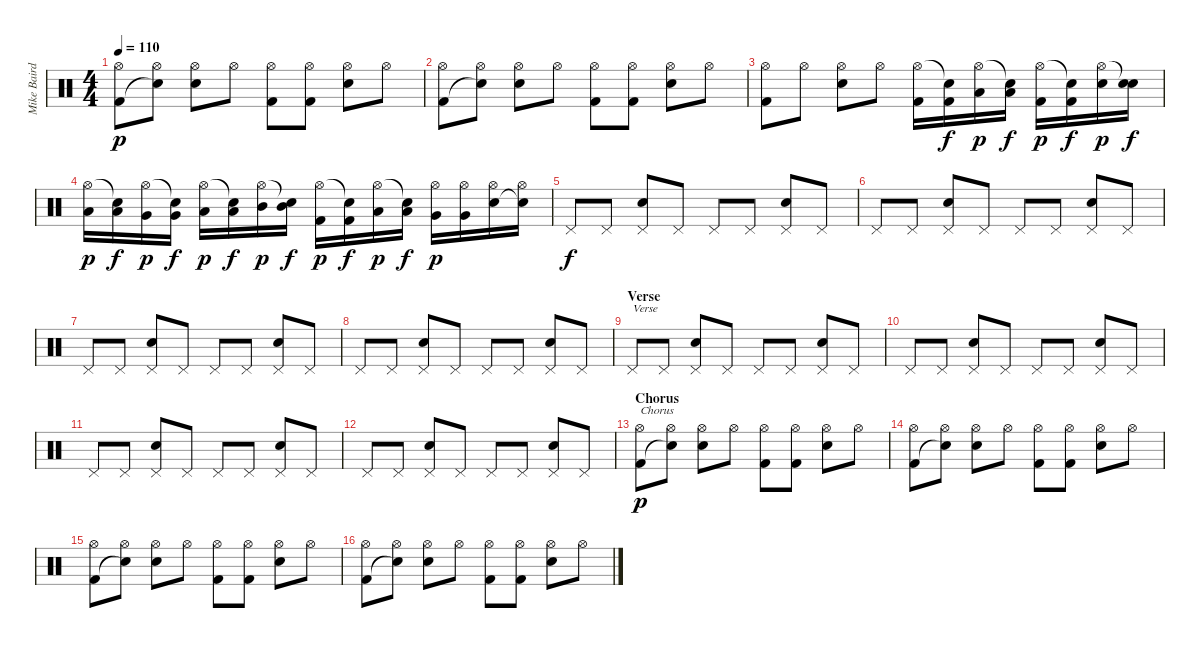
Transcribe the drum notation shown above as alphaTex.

\track ("Mike Baird [drums]" "Mike Baird") {instrument percussion}
\staff {score}
\articulation defaults
\ts (4 4)
\tempo 110
\clef neutral
\ks c
("Hi-Hat (open)" "Kick (hit) 2").8{dy p} ("Hi-Hat (open)" "Snare (hit)"{t}).8 ("Hi-Hat (open)" "Electric Snare (hit)").8 "Hi-Hat (open)".8 ("Hi-Hat (open)" "Kick (hit) 2").8 ("Hi-Hat (open)" "Kick (hit) 2").8 ("Hi-Hat (open)" "Electric Snare (hit)").8 "Hi-Hat (open)".8 |
("Hi-Hat (open)" "Kick (hit) 2").8 ("Hi-Hat (open)" "Snare (hit)"{t}).8 ("Hi-Hat (open)" "Electric Snare (hit)").8 "Hi-Hat (open)".8 ("Hi-Hat (open)" "Kick (hit) 2").8 ("Hi-Hat (open)" "Kick (hit) 2").8 ("Hi-Hat (open)" "Electric Snare (hit)").8 "Hi-Hat (open)".8 |
("Hi-Hat (open)" "Kick (hit) 2").8 "Hi-Hat (open)".8 ("Hi-Hat (open)" "Electric Snare (hit)").8 "Hi-Hat (open)".8 ("Hi-Hat (open)" "Kick (hit) 2").16 ("Snare (hit)"{t} "Kick (hit) 2").16{dy f} ("Hi-Hat (open)" "Low Tom (hit)").16{dy p} ("Snare (hit)"{t} "Low Tom (hit)").16{dy f} ("Hi-Hat (open)" "Kick (hit) 2").16{dy p} ("Snare (hit)"{t} "Kick (hit) 2").16{dy f} ("Hi-Hat (open)" "Electric Snare (hit)").16{dy p} ("Snare (hit)"{t} "Electric Snare (hit)").16{dy f} |
("Hi-Hat (open)" "Low Floor Tom (hit)").16{dy p} ("Snare (hit)"{t} "Low Floor Tom (hit)").16{dy f} ("Hi-Hat (open)" "Very Low Tom (hit)").16{dy p} ("Snare (hit)"{t} "Very Low Tom (hit)").16{dy f} ("Hi-Hat (open)" "Low Tom (hit)").16{dy p} ("Snare (hit)"{t} "Low Tom (hit)").16{dy f} ("Hi-Hat (open)" "Mid Tom (hit)").16{dy p} ("Snare (hit)"{t} "Mid Tom (hit)").16{dy f} ("Hi-Hat (open)" "Kick (hit) 2").16{dy p} ("Snare (hit)"{t} "Kick (hit) 2").16{dy f} ("Hi-Hat (open)" "Low Tom (hit)").16{dy p} ("Snare (hit)"{t} "Low Tom (hit)").16{dy f} ("Hi-Hat (open)" "Very Low Tom (hit)").16{dy p} ("Hi-Hat (open)" "Very Low Tom (hit)").16 ("Hi-Hat (open)" "Electric Snare (hit)").16 ("Hi-Hat (open)" "Electric Snare (hit)"{t}).16 |
"Pedal Hi-Hat (hit)".8{dy f} "Pedal Hi-Hat (hit)".8 ("Pedal Hi-Hat (hit)" "Electric Snare (hit)").8 "Pedal Hi-Hat (hit)".8 "Pedal Hi-Hat (hit)".8 "Pedal Hi-Hat (hit)".8 ("Pedal Hi-Hat (hit)" "Electric Snare (hit)").8 "Pedal Hi-Hat (hit)".8 |
"Pedal Hi-Hat (hit)".8 "Pedal Hi-Hat (hit)".8 ("Pedal Hi-Hat (hit)" "Electric Snare (hit)").8 "Pedal Hi-Hat (hit)".8 "Pedal Hi-Hat (hit)".8 "Pedal Hi-Hat (hit)".8 ("Pedal Hi-Hat (hit)" "Electric Snare (hit)").8 "Pedal Hi-Hat (hit)".8 |
"Pedal Hi-Hat (hit)".8 "Pedal Hi-Hat (hit)".8 ("Pedal Hi-Hat (hit)" "Electric Snare (hit)").8 "Pedal Hi-Hat (hit)".8 "Pedal Hi-Hat (hit)".8 "Pedal Hi-Hat (hit)".8 ("Pedal Hi-Hat (hit)" "Electric Snare (hit)").8 "Pedal Hi-Hat (hit)".8 |
"Pedal Hi-Hat (hit)".8 "Pedal Hi-Hat (hit)".8 ("Pedal Hi-Hat (hit)" "Electric Snare (hit)").8 "Pedal Hi-Hat (hit)".8 "Pedal Hi-Hat (hit)".8 "Pedal Hi-Hat (hit)".8 ("Pedal Hi-Hat (hit)" "Electric Snare (hit)").8 "Pedal Hi-Hat (hit)".8 |
\section ("" "Verse")
"Pedal Hi-Hat (hit)".8{txt "Verse"} "Pedal Hi-Hat (hit)".8 ("Pedal Hi-Hat (hit)" "Electric Snare (hit)").8 "Pedal Hi-Hat (hit)".8 "Pedal Hi-Hat (hit)".8 "Pedal Hi-Hat (hit)".8 ("Pedal Hi-Hat (hit)" "Electric Snare (hit)").8 "Pedal Hi-Hat (hit)".8 |
"Pedal Hi-Hat (hit)".8 "Pedal Hi-Hat (hit)".8 ("Pedal Hi-Hat (hit)" "Electric Snare (hit)").8 "Pedal Hi-Hat (hit)".8 "Pedal Hi-Hat (hit)".8 "Pedal Hi-Hat (hit)".8 ("Pedal Hi-Hat (hit)" "Electric Snare (hit)").8 "Pedal Hi-Hat (hit)".8 |
"Pedal Hi-Hat (hit)".8 "Pedal Hi-Hat (hit)".8 ("Pedal Hi-Hat (hit)" "Electric Snare (hit)").8 "Pedal Hi-Hat (hit)".8 "Pedal Hi-Hat (hit)".8 "Pedal Hi-Hat (hit)".8 ("Pedal Hi-Hat (hit)" "Electric Snare (hit)").8 "Pedal Hi-Hat (hit)".8 |
"Pedal Hi-Hat (hit)".8 "Pedal Hi-Hat (hit)".8 ("Pedal Hi-Hat (hit)" "Electric Snare (hit)").8 "Pedal Hi-Hat (hit)".8 "Pedal Hi-Hat (hit)".8 "Pedal Hi-Hat (hit)".8 ("Pedal Hi-Hat (hit)" "Electric Snare (hit)").8 "Pedal Hi-Hat (hit)".8 |
\section ("" "Chorus")
("Hi-Hat (open)" "Kick (hit) 2").8{txt "Chorus" dy p} ("Hi-Hat (open)" "Snare (hit)"{t}).8 ("Hi-Hat (open)" "Electric Snare (hit)").8 "Hi-Hat (open)".8 ("Hi-Hat (open)" "Kick (hit) 2").8 ("Hi-Hat (open)" "Kick (hit) 2").8 ("Hi-Hat (open)" "Electric Snare (hit)").8 "Hi-Hat (open)".8 |
("Hi-Hat (open)" "Kick (hit) 2").8 ("Hi-Hat (open)" "Snare (hit)"{t}).8 ("Hi-Hat (open)" "Electric Snare (hit)").8 "Hi-Hat (open)".8 ("Hi-Hat (open)" "Kick (hit) 2").8 ("Hi-Hat (open)" "Kick (hit) 2").8 ("Hi-Hat (open)" "Electric Snare (hit)").8 "Hi-Hat (open)".8 |
("Hi-Hat (open)" "Kick (hit) 2").8 ("Hi-Hat (open)" "Snare (hit)"{t}).8 ("Hi-Hat (open)" "Electric Snare (hit)").8 "Hi-Hat (open)".8 ("Hi-Hat (open)" "Kick (hit) 2").8 ("Hi-Hat (open)" "Kick (hit) 2").8 ("Hi-Hat (open)" "Electric Snare (hit)").8 "Hi-Hat (open)".8 |
("Hi-Hat (open)" "Kick (hit) 2").8 ("Hi-Hat (open)" "Snare (hit)"{t}).8 ("Hi-Hat (open)" "Electric Snare (hit)").8 "Hi-Hat (open)".8 ("Hi-Hat (open)" "Kick (hit) 2").8 ("Hi-Hat (open)" "Kick (hit) 2").8 ("Hi-Hat (open)" "Electric Snare (hit)").8 "Hi-Hat (open)".8
